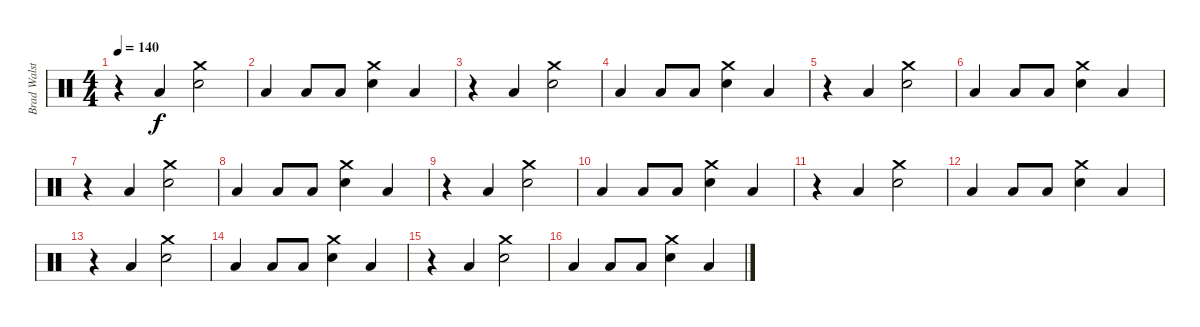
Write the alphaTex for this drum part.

\track ("Brad Walst" "Brad Walst") {instrument percussion}
\staff {score}
\articulation defaults
\ts (4 4)
\tempo 140
\clef neutral
\ks c
r.4{dy f} "Low Floor Tom (hit)".4 ("Crash medium (hit)" "Electric Snare (hit)").2 |
"Low Floor Tom (hit)".4 "Low Floor Tom (hit)".8 "Low Floor Tom (hit)".8 ("Crash medium (hit)" "Electric Snare (hit)").4 "Low Floor Tom (hit)".4 |
r.4 "Low Floor Tom (hit)".4 ("Crash medium (hit)" "Electric Snare (hit)").2 |
"Low Floor Tom (hit)".4 "Low Floor Tom (hit)".8 "Low Floor Tom (hit)".8 ("Crash medium (hit)" "Electric Snare (hit)").4 "Low Floor Tom (hit)".4 |
r.4 "Low Floor Tom (hit)".4 ("Crash medium (hit)" "Electric Snare (hit)").2 |
"Low Floor Tom (hit)".4 "Low Floor Tom (hit)".8 "Low Floor Tom (hit)".8 ("Crash medium (hit)" "Electric Snare (hit)").4 "Low Floor Tom (hit)".4 |
r.4 "Low Floor Tom (hit)".4 ("Crash medium (hit)" "Electric Snare (hit)").2 |
"Low Floor Tom (hit)".4 "Low Floor Tom (hit)".8 "Low Floor Tom (hit)".8 ("Crash medium (hit)" "Electric Snare (hit)").4 "Low Floor Tom (hit)".4 |
r.4 "Low Floor Tom (hit)".4 ("Crash medium (hit)" "Electric Snare (hit)").2 |
"Low Floor Tom (hit)".4 "Low Floor Tom (hit)".8 "Low Floor Tom (hit)".8 ("Crash medium (hit)" "Electric Snare (hit)").4 "Low Floor Tom (hit)".4 |
r.4 "Low Floor Tom (hit)".4 ("Crash medium (hit)" "Electric Snare (hit)").2 |
"Low Floor Tom (hit)".4 "Low Floor Tom (hit)".8 "Low Floor Tom (hit)".8 ("Crash medium (hit)" "Electric Snare (hit)").4 "Low Floor Tom (hit)".4 |
r.4 "Low Floor Tom (hit)".4 ("Crash medium (hit)" "Electric Snare (hit)").2 |
"Low Floor Tom (hit)".4 "Low Floor Tom (hit)".8 "Low Floor Tom (hit)".8 ("Crash medium (hit)" "Electric Snare (hit)").4 "Low Floor Tom (hit)".4 |
r.4 "Low Floor Tom (hit)".4 ("Crash medium (hit)" "Electric Snare (hit)").2 |
"Low Floor Tom (hit)".4 "Low Floor Tom (hit)".8 "Low Floor Tom (hit)".8 ("Crash medium (hit)" "Electric Snare (hit)").4 "Low Floor Tom (hit)".4
